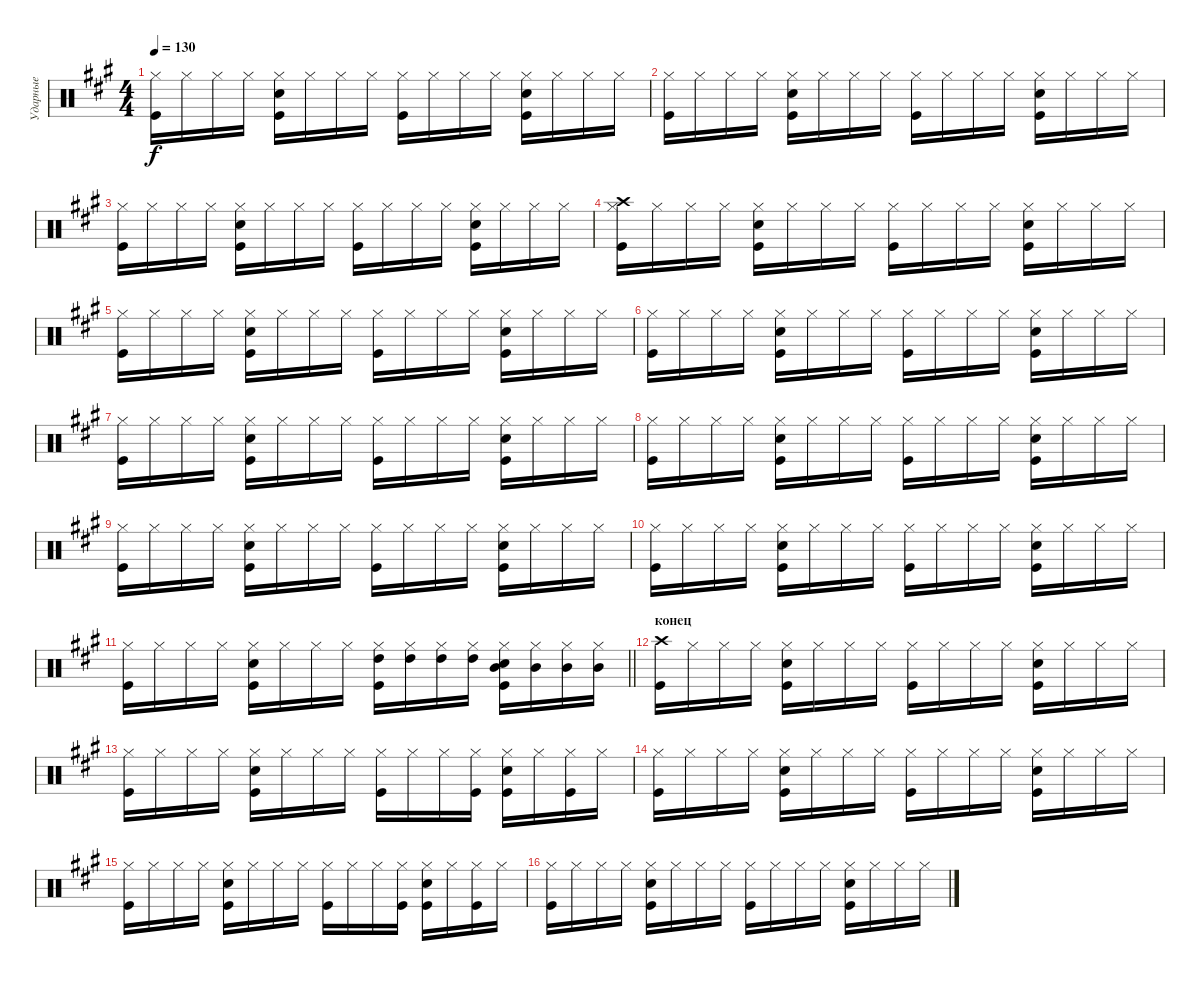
\track ("Ударные" "Ударные") {instrument percussion}
\staff {score}
\articulation defaults
\ts (4 4)
\tempo 130
\clef neutral
\ks f#minor
("Hi-Hat (closed)" "Kick (hit)").16{dy f} "Hi-Hat (closed)".16 "Hi-Hat (closed)".16 "Hi-Hat (closed)".16 ("Hi-Hat (closed)" "Snare (hit) 2" "Kick (hit)").16 "Hi-Hat (closed)".16 "Hi-Hat (closed)".16 "Hi-Hat (closed)".16 ("Hi-Hat (closed)" "Kick (hit)").16 "Hi-Hat (closed)".16 "Hi-Hat (closed)".16 "Hi-Hat (closed)".16 ("Hi-Hat (closed)" "Snare (hit) 2" "Kick (hit)").16 "Hi-Hat (closed)".16 "Hi-Hat (closed)".16 "Hi-Hat (closed)".16 |
("Hi-Hat (closed)" "Kick (hit)").16 "Hi-Hat (closed)".16 "Hi-Hat (closed)".16 "Hi-Hat (closed)".16 ("Hi-Hat (closed)" "Snare (hit) 2" "Kick (hit)").16 "Hi-Hat (closed)".16 "Hi-Hat (closed)".16 "Hi-Hat (closed)".16 ("Hi-Hat (closed)" "Kick (hit)").16 "Hi-Hat (closed)".16 "Hi-Hat (closed)".16 "Hi-Hat (closed)".16 ("Hi-Hat (closed)" "Snare (hit) 2" "Kick (hit)").16 "Hi-Hat (closed)".16 "Hi-Hat (closed)".16 "Hi-Hat (closed)".16 |
("Hi-Hat (closed)" "Kick (hit)").16 "Hi-Hat (closed)".16 "Hi-Hat (closed)".16 "Hi-Hat (closed)".16 ("Hi-Hat (closed)" "Snare (hit) 2" "Kick (hit)").16 "Hi-Hat (closed)".16 "Hi-Hat (closed)".16 "Hi-Hat (closed)".16 ("Hi-Hat (closed)" "Kick (hit)").16 "Hi-Hat (closed)".16 "Hi-Hat (closed)".16 "Hi-Hat (closed)".16 ("Hi-Hat (closed)" "Snare (hit) 2" "Kick (hit)").16 "Hi-Hat (closed)".16 "Hi-Hat (closed)".16 "Hi-Hat (closed)".16 |
("Kick (hit)" "Hi-Hat (closed)" "Crash high (hit)").16 "Hi-Hat (closed)".16 "Hi-Hat (closed)".16 "Hi-Hat (closed)".16 ("Hi-Hat (closed)" "Snare (hit) 2" "Kick (hit)").16 "Hi-Hat (closed)".16 "Hi-Hat (closed)".16 "Hi-Hat (closed)".16 ("Hi-Hat (closed)" "Kick (hit)").16 "Hi-Hat (closed)".16 "Hi-Hat (closed)".16 "Hi-Hat (closed)".16 ("Hi-Hat (closed)" "Snare (hit) 2" "Kick (hit)").16 "Hi-Hat (closed)".16 "Hi-Hat (closed)".16 "Hi-Hat (closed)".16 |
("Hi-Hat (closed)" "Kick (hit)").16 "Hi-Hat (closed)".16 "Hi-Hat (closed)".16 "Hi-Hat (closed)".16 ("Hi-Hat (closed)" "Snare (hit) 2" "Kick (hit)").16 "Hi-Hat (closed)".16 "Hi-Hat (closed)".16 "Hi-Hat (closed)".16 ("Hi-Hat (closed)" "Kick (hit)").16 "Hi-Hat (closed)".16 "Hi-Hat (closed)".16 "Hi-Hat (closed)".16 ("Hi-Hat (closed)" "Snare (hit) 2" "Kick (hit)").16 "Hi-Hat (closed)".16 "Hi-Hat (closed)".16 "Hi-Hat (closed)".16 |
("Hi-Hat (closed)" "Kick (hit)").16 "Hi-Hat (closed)".16 "Hi-Hat (closed)".16 "Hi-Hat (closed)".16 ("Hi-Hat (closed)" "Snare (hit) 2" "Kick (hit)").16 "Hi-Hat (closed)".16 "Hi-Hat (closed)".16 "Hi-Hat (closed)".16 ("Hi-Hat (closed)" "Kick (hit)").16 "Hi-Hat (closed)".16 "Hi-Hat (closed)".16 "Hi-Hat (closed)".16 ("Hi-Hat (closed)" "Snare (hit) 2" "Kick (hit)").16 "Hi-Hat (closed)".16 "Hi-Hat (closed)".16 "Hi-Hat (closed)".16 |
("Hi-Hat (closed)" "Kick (hit)").16 "Hi-Hat (closed)".16 "Hi-Hat (closed)".16 "Hi-Hat (closed)".16 ("Hi-Hat (closed)" "Snare (hit) 2" "Kick (hit)").16 "Hi-Hat (closed)".16 "Hi-Hat (closed)".16 "Hi-Hat (closed)".16 ("Hi-Hat (closed)" "Kick (hit)").16 "Hi-Hat (closed)".16 "Hi-Hat (closed)".16 "Hi-Hat (closed)".16 ("Hi-Hat (closed)" "Snare (hit) 2" "Kick (hit)").16 "Hi-Hat (closed)".16 "Hi-Hat (closed)".16 "Hi-Hat (closed)".16 |
("Kick (hit)" "Hi-Hat (closed)").16 "Hi-Hat (closed)".16 "Hi-Hat (closed)".16 "Hi-Hat (closed)".16 ("Hi-Hat (closed)" "Snare (hit) 2" "Kick (hit)").16 "Hi-Hat (closed)".16 "Hi-Hat (closed)".16 "Hi-Hat (closed)".16 ("Hi-Hat (closed)" "Kick (hit)").16 "Hi-Hat (closed)".16 "Hi-Hat (closed)".16 "Hi-Hat (closed)".16 ("Hi-Hat (closed)" "Snare (hit) 2" "Kick (hit)").16 "Hi-Hat (closed)".16 "Hi-Hat (closed)".16 "Hi-Hat (closed)".16 |
("Hi-Hat (closed)" "Kick (hit)").16 "Hi-Hat (closed)".16 "Hi-Hat (closed)".16 "Hi-Hat (closed)".16 ("Hi-Hat (closed)" "Snare (hit) 2" "Kick (hit)").16 "Hi-Hat (closed)".16 "Hi-Hat (closed)".16 "Hi-Hat (closed)".16 ("Hi-Hat (closed)" "Kick (hit)").16 "Hi-Hat (closed)".16 "Hi-Hat (closed)".16 "Hi-Hat (closed)".16 ("Hi-Hat (closed)" "Snare (hit) 2" "Kick (hit)").16 "Hi-Hat (closed)".16 "Hi-Hat (closed)".16 "Hi-Hat (closed)".16 |
("Hi-Hat (closed)" "Kick (hit)").16 "Hi-Hat (closed)".16 "Hi-Hat (closed)".16 "Hi-Hat (closed)".16 ("Hi-Hat (closed)" "Snare (hit) 2" "Kick (hit)").16 "Hi-Hat (closed)".16 "Hi-Hat (closed)".16 "Hi-Hat (closed)".16 ("Hi-Hat (closed)" "Kick (hit)").16 "Hi-Hat (closed)".16 "Hi-Hat (closed)".16 "Hi-Hat (closed)".16 ("Hi-Hat (closed)" "Snare (hit) 2" "Kick (hit)").16 "Hi-Hat (closed)".16 "Hi-Hat (closed)".16 "Hi-Hat (closed)".16 |
\barLineRight lightlight
("Hi-Hat (closed)" "Kick (hit)").16 "Hi-Hat (closed)".16 "Hi-Hat (closed)".16 "Hi-Hat (closed)".16 ("Hi-Hat (closed)" "Snare (hit) 2" "Kick (hit)").16 "Hi-Hat (closed)".16 "Hi-Hat (closed)".16 "Hi-Hat (closed)".16 ("Hi-Hat (closed)" "Kick (hit)" "High Tom (hit)").16 ("Hi-Hat (closed)" "High Tom (hit)").16 ("Hi-Hat (closed)" "High Tom (hit)").16 ("Hi-Hat (closed)" "High Tom (hit)").16 ("Hi-Hat (closed)" "Snare (hit) 2" "Kick (hit)" "Mid Tom (hit)").16 ("Hi-Hat (closed)" "Mid Tom (hit)").16 ("Hi-Hat (closed)" "Mid Tom (hit)").16 ("Hi-Hat (closed)" "Mid Tom (hit)").16 |
\section ("" "конец")
("Kick (hit)" "Crash high (hit)").16 "Hi-Hat (closed)".16 "Hi-Hat (closed)".16 "Hi-Hat (closed)".16 ("Hi-Hat (closed)" "Snare (hit) 2" "Kick (hit)").16 "Hi-Hat (closed)".16 "Hi-Hat (closed)".16 "Hi-Hat (closed)".16 ("Hi-Hat (closed)" "Kick (hit)").16 "Hi-Hat (closed)".16 "Hi-Hat (closed)".16 "Hi-Hat (closed)".16 ("Hi-Hat (closed)" "Snare (hit) 2" "Kick (hit)").16 "Hi-Hat (closed)".16 "Hi-Hat (closed)".16 "Hi-Hat (closed)".16 |
("Hi-Hat (closed)" "Kick (hit)").16 "Hi-Hat (closed)".16 "Hi-Hat (closed)".16 "Hi-Hat (closed)".16 ("Hi-Hat (closed)" "Snare (hit) 2" "Kick (hit)").16 "Hi-Hat (closed)".16 "Hi-Hat (closed)".16 "Hi-Hat (closed)".16 ("Hi-Hat (closed)" "Kick (hit)").16 "Hi-Hat (closed)".16 "Hi-Hat (closed)".16 ("Hi-Hat (closed)" "Kick (hit)").16 ("Hi-Hat (closed)" "Snare (hit) 2" "Kick (hit)").16 "Hi-Hat (closed)".16 ("Hi-Hat (closed)" "Kick (hit)").16 "Hi-Hat (closed)".16 |
("Hi-Hat (closed)" "Kick (hit)").16 "Hi-Hat (closed)".16 "Hi-Hat (closed)".16 "Hi-Hat (closed)".16 ("Hi-Hat (closed)" "Snare (hit) 2" "Kick (hit)").16 "Hi-Hat (closed)".16 "Hi-Hat (closed)".16 "Hi-Hat (closed)".16 ("Hi-Hat (closed)" "Kick (hit)").16 "Hi-Hat (closed)".16 "Hi-Hat (closed)".16 "Hi-Hat (closed)".16 ("Hi-Hat (closed)" "Snare (hit) 2" "Kick (hit)").16 "Hi-Hat (closed)".16 "Hi-Hat (closed)".16 "Hi-Hat (closed)".16 |
("Hi-Hat (closed)" "Kick (hit)").16 "Hi-Hat (closed)".16 "Hi-Hat (closed)".16 "Hi-Hat (closed)".16 ("Hi-Hat (closed)" "Snare (hit) 2" "Kick (hit)").16 "Hi-Hat (closed)".16 "Hi-Hat (closed)".16 "Hi-Hat (closed)".16 ("Hi-Hat (closed)" "Kick (hit)").16 "Hi-Hat (closed)".16 "Hi-Hat (closed)".16 ("Hi-Hat (closed)" "Kick (hit)").16 ("Hi-Hat (closed)" "Snare (hit) 2" "Kick (hit)").16 "Hi-Hat (closed)".16 ("Hi-Hat (closed)" "Kick (hit)").16 "Hi-Hat (closed)".16 |
("Hi-Hat (closed)" "Kick (hit)").16 "Hi-Hat (closed)".16 "Hi-Hat (closed)".16 "Hi-Hat (closed)".16 ("Hi-Hat (closed)" "Snare (hit) 2" "Kick (hit)").16 "Hi-Hat (closed)".16 "Hi-Hat (closed)".16 "Hi-Hat (closed)".16 ("Hi-Hat (closed)" "Kick (hit)").16 "Hi-Hat (closed)".16 "Hi-Hat (closed)".16 "Hi-Hat (closed)".16 ("Hi-Hat (closed)" "Snare (hit) 2" "Kick (hit)").16 "Hi-Hat (closed)".16 "Hi-Hat (closed)".16 "Hi-Hat (closed)".16
